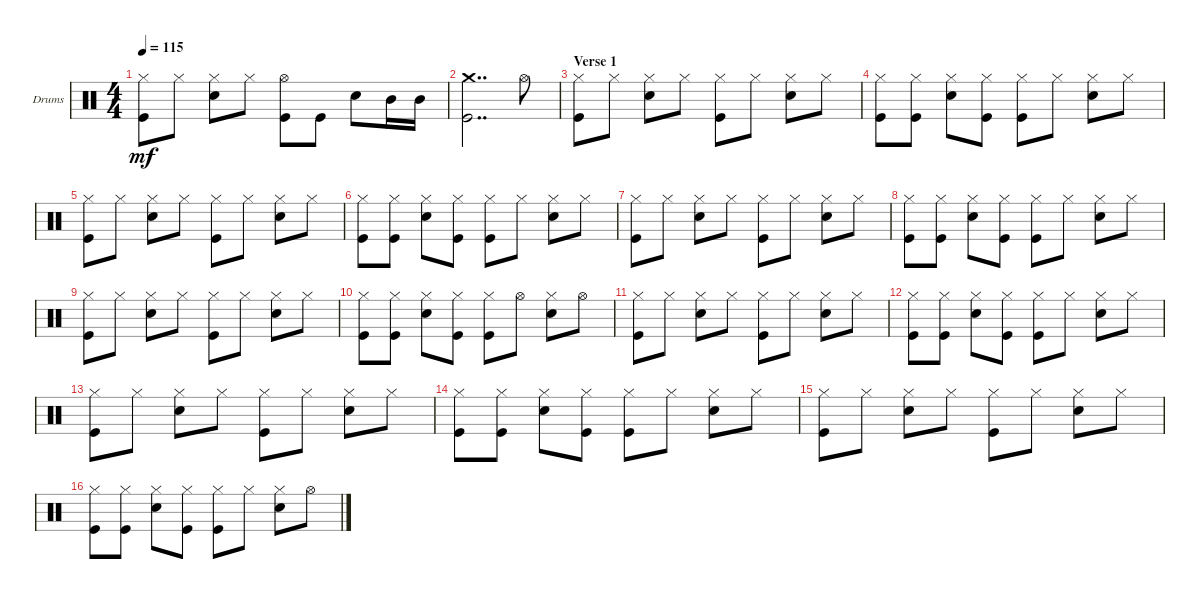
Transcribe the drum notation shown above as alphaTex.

\defaultSystemsLayout 4
\bracketExtendMode groupsimilarinstruments
\firstSystemTrackNameOrientation horizontal
\otherSystemsTrackNameOrientation horizontal
\track ("Drumkit (Curt Cress)" "Drums") {instrument percussion}
\staff {score}
\articulation defaults
\ts (4 4)
\tempo 115
\clef neutral
\scale
1.02648
\ks c
("Kick (hit)" "Hi-Hat (closed)").8{dy mf} "Hi-Hat (closed)".8 ("Hi-Hat (closed)" "Snare (hit) 2").8 "Hi-Hat (closed)".8 ("Hi-Hat (open)" "Kick (hit)").8 "Kick (hit)".8 "Snare (hit) 2".8 "Mid Tom (hit)".16 "Mid Tom (hit)".16 |
\scale
0.973518 ("Kick (hit)" "Crash medium (hit)").2{dd} "Hi-Hat (open)".8 |
\section ("" "Verse 1")
\scale
1.02648 ("Kick (hit)" "Hi-Hat (closed)").8 "Hi-Hat (closed)".8 ("Hi-Hat (closed)" "Snare (hit) 2").8 "Hi-Hat (closed)".8 ("Hi-Hat (closed)" "Kick (hit)").8 "Hi-Hat (closed)".8 ("Hi-Hat (closed)" "Snare (hit) 2").8 "Hi-Hat (closed)".8 |
\scale
0.973518 ("Kick (hit)" "Hi-Hat (closed)").8 ("Hi-Hat (closed)" "Kick (hit)").8 ("Hi-Hat (closed)" "Snare (hit) 2").8 ("Hi-Hat (closed)" "Kick (hit)").8 ("Hi-Hat (closed)" "Kick (hit)").8 "Hi-Hat (closed)".8 ("Hi-Hat (closed)" "Snare (hit) 2").8 "Hi-Hat (closed)".8 |
\scale
1.02648 ("Kick (hit)" "Hi-Hat (closed)").8 "Hi-Hat (closed)".8 ("Hi-Hat (closed)" "Snare (hit) 2").8 "Hi-Hat (closed)".8 ("Hi-Hat (closed)" "Kick (hit)").8 "Hi-Hat (closed)".8 ("Hi-Hat (closed)" "Snare (hit) 2").8 "Hi-Hat (closed)".8 |
\scale
0.973518 ("Kick (hit)" "Hi-Hat (closed)").8 ("Hi-Hat (closed)" "Kick (hit)").8 ("Hi-Hat (closed)" "Snare (hit) 2").8 ("Hi-Hat (closed)" "Kick (hit)").8 ("Hi-Hat (closed)" "Kick (hit)").8 "Hi-Hat (closed)".8 ("Hi-Hat (closed)" "Snare (hit) 2").8 "Hi-Hat (closed)".8 |
\scale
1.02648 ("Kick (hit)" "Hi-Hat (closed)").8 "Hi-Hat (closed)".8 ("Hi-Hat (closed)" "Snare (hit) 2").8 "Hi-Hat (closed)".8 ("Hi-Hat (closed)" "Kick (hit)").8 "Hi-Hat (closed)".8 ("Hi-Hat (closed)" "Snare (hit) 2").8 "Hi-Hat (closed)".8 |
\scale
0.973518 ("Kick (hit)" "Hi-Hat (closed)").8 ("Hi-Hat (closed)" "Kick (hit)").8 ("Hi-Hat (closed)" "Snare (hit) 2").8 ("Hi-Hat (closed)" "Kick (hit)").8 ("Hi-Hat (closed)" "Kick (hit)").8 "Hi-Hat (closed)".8 ("Hi-Hat (closed)" "Snare (hit) 2").8 "Hi-Hat (closed)".8 |
\scale
1.02648 ("Kick (hit)" "Hi-Hat (closed)").8 "Hi-Hat (closed)".8 ("Hi-Hat (closed)" "Snare (hit) 2").8 "Hi-Hat (closed)".8 ("Hi-Hat (closed)" "Kick (hit)").8 "Hi-Hat (closed)".8 ("Hi-Hat (closed)" "Snare (hit) 2").8 "Hi-Hat (closed)".8 |
\scale
0.973518 ("Kick (hit)" "Hi-Hat (closed)").8 ("Hi-Hat (closed)" "Kick (hit)").8 ("Hi-Hat (closed)" "Snare (hit) 2").8 ("Hi-Hat (closed)" "Kick (hit)").8 ("Hi-Hat (closed)" "Kick (hit)").8 "Hi-Hat (open)".8 ("Hi-Hat (closed)" "Snare (hit) 2").8 "Hi-Hat (open)".8 |
\scale
1.02648 ("Kick (hit)" "Hi-Hat (closed)").8 "Hi-Hat (closed)".8 ("Hi-Hat (closed)" "Snare (hit) 2").8 "Hi-Hat (closed)".8 ("Hi-Hat (closed)" "Kick (hit)").8 "Hi-Hat (closed)".8 ("Hi-Hat (closed)" "Snare (hit) 2").8 "Hi-Hat (closed)".8 |
\scale
0.973518 ("Kick (hit)" "Hi-Hat (closed)").8 ("Hi-Hat (closed)" "Kick (hit)").8 ("Hi-Hat (closed)" "Snare (hit) 2").8 ("Hi-Hat (closed)" "Kick (hit)").8 ("Hi-Hat (closed)" "Kick (hit)").8 "Hi-Hat (closed)".8 ("Hi-Hat (closed)" "Snare (hit) 2").8 "Hi-Hat (closed)".8 |
\scale
1.02648 ("Kick (hit)" "Hi-Hat (closed)").8 "Hi-Hat (closed)".8 ("Hi-Hat (closed)" "Snare (hit) 2").8 "Hi-Hat (closed)".8 ("Hi-Hat (closed)" "Kick (hit)").8 "Hi-Hat (closed)".8 ("Hi-Hat (closed)" "Snare (hit) 2").8 "Hi-Hat (closed)".8 |
\scale
0.973518 ("Kick (hit)" "Hi-Hat (closed)").8 ("Hi-Hat (closed)" "Kick (hit)").8 ("Hi-Hat (closed)" "Snare (hit) 2").8 ("Hi-Hat (closed)" "Kick (hit)").8 ("Hi-Hat (closed)" "Kick (hit)").8 "Hi-Hat (closed)".8 ("Hi-Hat (closed)" "Snare (hit) 2").8 "Hi-Hat (closed)".8 |
\scale
1.02648 ("Kick (hit)" "Hi-Hat (closed)").8 "Hi-Hat (closed)".8 ("Hi-Hat (closed)" "Snare (hit) 2").8 "Hi-Hat (closed)".8 ("Hi-Hat (closed)" "Kick (hit)").8 "Hi-Hat (closed)".8 ("Hi-Hat (closed)" "Snare (hit) 2").8 "Hi-Hat (closed)".8 |
\scale
0.973518 ("Kick (hit)" "Hi-Hat (closed)").8 ("Hi-Hat (closed)" "Kick (hit)").8 ("Hi-Hat (closed)" "Snare (hit) 2").8 ("Hi-Hat (closed)" "Kick (hit)").8 ("Hi-Hat (closed)" "Kick (hit)").8 "Hi-Hat (closed)".8 ("Hi-Hat (closed)" "Snare (hit) 2").8 "Hi-Hat (open)".8
